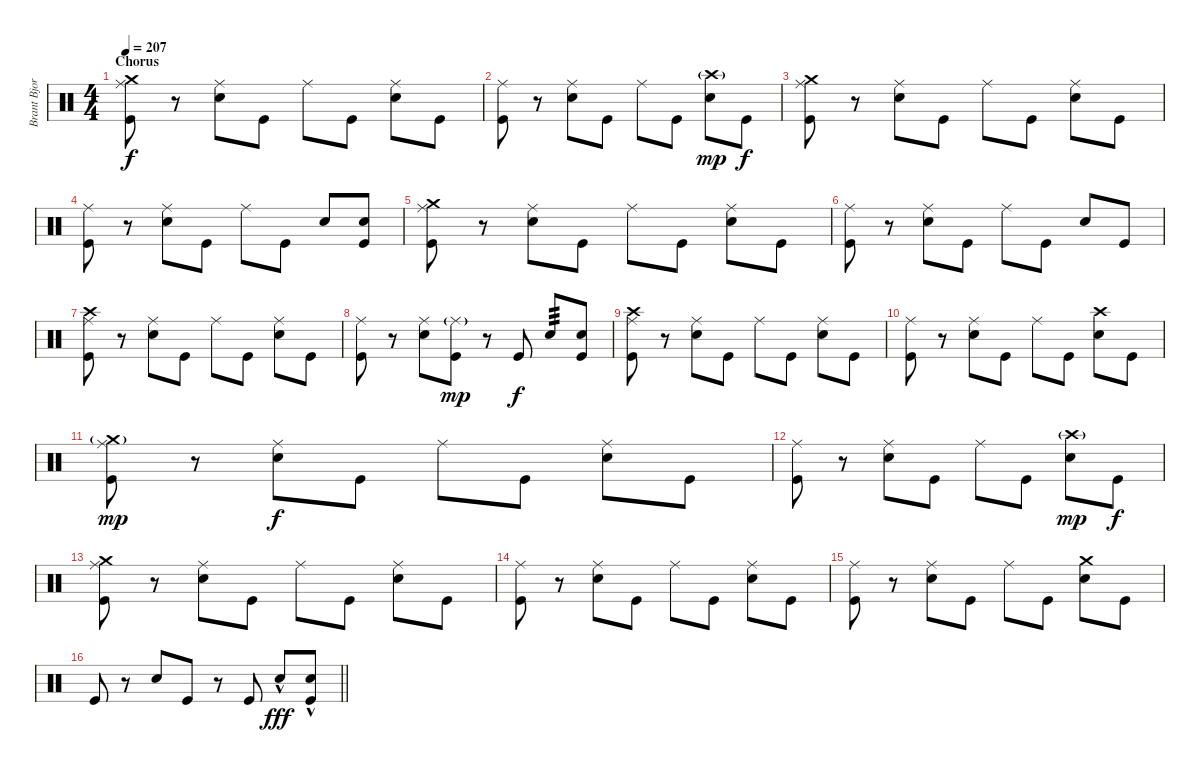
\track ("Brant Bjork - Drums" "Brant Bjor") {instrument percussion}
\staff {score}
\articulation defaults
\ts (4 4)
\section ("" "Chorus")
\tempo 207
\clef neutral
\ks c
("Ride (middle)" "Crash medium (hit)" "Kick (hit)").8{dy f} r.8 ("Ride (middle)" "Snare (hit) 2").8 "Kick (hit)".8 "Ride (middle)".8 "Kick (hit)".8 ("Ride (middle)" "Snare (hit) 2").8 "Kick (hit)".8 |
("Ride (middle)" "Kick (hit)").8 r.8 ("Ride (middle)" "Snare (hit) 2").8 "Kick (hit)".8 "Ride (middle)".8 "Kick (hit)".8 ("Crash high (hit)"{g} "Snare (hit) 2").8{dy mp} "Kick (hit)".8{dy f} |
("Ride (middle)" "Crash medium (hit)" "Kick (hit)").8 r.8 ("Ride (middle)" "Snare (hit) 2").8 "Kick (hit)".8 "Ride (middle)".8 "Kick (hit)".8 ("Ride (middle)" "Snare (hit) 2").8 "Kick (hit)".8 |
("Ride (middle)" "Kick (hit)").8 r.8 ("Ride (middle)" "Snare (hit) 2").8 "Kick (hit)".8 "Ride (middle)".8 "Kick (hit)".8 "Snare (hit) 2".8 ("Snare (hit) 2" "Kick (hit)").8 |
("Ride (middle)" "Crash medium (hit)" "Kick (hit)").8 r.8 ("Ride (middle)" "Snare (hit) 2").8 "Kick (hit)".8 "Ride (middle)".8 "Kick (hit)".8 ("Ride (middle)" "Snare (hit) 2").8 "Kick (hit)".8 |
("Ride (middle)" "Kick (hit)").8 r.8 ("Ride (middle)" "Snare (hit) 2").8 "Kick (hit)".8 "Ride (middle)".8 "Kick (hit)".8 "Snare (hit) 2".8 "Kick (hit)".8 |
("Ride (middle)" "Crash high (hit)" "Kick (hit)").8 r.8 ("Ride (middle)" "Snare (hit) 2").8 "Kick (hit)".8 "Ride (middle)".8 "Kick (hit)".8 ("Ride (middle)" "Snare (hit) 2").8 "Kick (hit)".8 |
("Ride (middle)" "Kick (hit)").8 r.8 ("Ride (middle)" "Snare (hit) 2").8 ("Ride (middle)"{g} "Kick (hit)").8{dy mp} r.8 "Kick (hit)".8{dy f} "Snare (hit) 2".8{tp 3} ("Snare (hit) 2" "Kick (hit)").8 |
("Ride (middle)" "Crash high (hit)" "Kick (hit)").8 r.8 ("Ride (middle)" "Snare (hit) 2").8 "Kick (hit)".8 "Ride (middle)".8 "Kick (hit)".8 ("Ride (middle)" "Snare (hit) 2").8 "Kick (hit)".8 |
("Ride (middle)" "Kick (hit)").8 r.8 ("Ride (middle)" "Snare (hit) 2").8 "Kick (hit)".8 "Ride (middle)".8 "Kick (hit)".8 ("Crash high (hit)" "Snare (hit) 2").8 "Kick (hit)".8 |
("Ride (middle)" "Crash medium (hit)"{g} "Kick (hit)").8{dy mp} r.8 ("Ride (middle)" "Snare (hit) 2").8{dy f} "Kick (hit)".8 "Ride (middle)".8 "Kick (hit)".8 ("Ride (middle)" "Snare (hit) 2").8 "Kick (hit)".8 |
("Ride (middle)" "Kick (hit)").8 r.8 ("Ride (middle)" "Snare (hit) 2").8 "Kick (hit)".8 "Ride (middle)".8 "Kick (hit)".8 ("Crash high (hit)"{g} "Snare (hit) 2").8{dy mp} "Kick (hit)".8{dy f} |
("Ride (middle)" "Crash medium (hit)" "Kick (hit)").8 r.8 ("Ride (middle)" "Snare (hit) 2").8 "Kick (hit)".8 "Ride (middle)".8 "Kick (hit)".8 ("Ride (middle)" "Snare (hit) 2").8 "Kick (hit)".8 |
("Ride (middle)" "Kick (hit)").8 r.8 ("Ride (middle)" "Snare (hit) 2").8 "Kick (hit)".8 "Ride (middle)".8 "Kick (hit)".8 ("Ride (middle)" "Snare (hit) 2").8 "Kick (hit)".8 |
("Ride (middle)" "Kick (hit)").8 r.8 ("Ride (middle)" "Snare (hit) 2").8 "Kick (hit)".8 "Ride (middle)".8 "Kick (hit)".8 ("Crash medium (hit)" "Snare (hit) 2").8 "Kick (hit)".8 |
\barLineRight lightlight "Kick (hit)".8
r.8 "Snare (hit) 2".8 "Kick (hit)".8 r.8 "Kick (hit)".8 "Snare (hit) 2"{hac}.8{dy fff} ("Snare (hit) 2"{hac} "Kick (hit)").8
